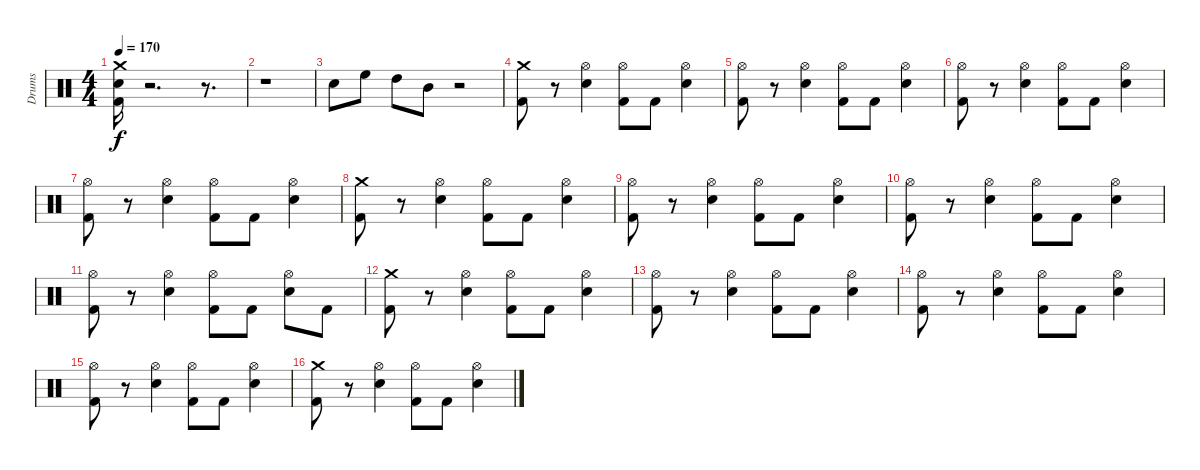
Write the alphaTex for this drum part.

\track ("Drums" "Drums") {instrument percussion}
\staff {score}
\articulation defaults
\ts (4 4)
\tempo 170
\clef neutral
\ks c
("Crash medium (hit)" "Kick (hit) 2" "Electric Snare (hit)").16{dy f} r.2{d} r.8{d} |
r.1 |
"Electric Snare (hit)".8 "High Floor Tom (hit)".8 "High Tom (hit)".8 "Mid Tom (hit)".8 r.2 |
("Kick (hit) 2" "Crash medium (hit)").8 r.8 ("Hi-Hat (open)" "Electric Snare (hit)").4 ("Hi-Hat (open)" "Kick (hit) 2").8 "Kick (hit) 2".8 ("Hi-Hat (open)" "Electric Snare (hit)").4 |
("Hi-Hat (open)" "Kick (hit) 2").8 r.8 ("Hi-Hat (open)" "Electric Snare (hit)").4 ("Hi-Hat (open)" "Kick (hit) 2").8 "Kick (hit) 2".8 ("Hi-Hat (open)" "Electric Snare (hit)").4 |
("Hi-Hat (open)" "Kick (hit) 2").8 r.8 ("Hi-Hat (open)" "Electric Snare (hit)").4 ("Hi-Hat (open)" "Kick (hit) 2").8 "Kick (hit) 2".8 ("Hi-Hat (open)" "Electric Snare (hit)").4 |
("Hi-Hat (open)" "Kick (hit) 2").8 r.8 ("Hi-Hat (open)" "Electric Snare (hit)").4 ("Hi-Hat (open)" "Kick (hit) 2").8 "Kick (hit) 2".8 ("Hi-Hat (open)" "Electric Snare (hit)").4 |
("Kick (hit) 2" "Crash medium (hit)").8 r.8 ("Hi-Hat (open)" "Electric Snare (hit)").4 ("Hi-Hat (open)" "Kick (hit) 2").8 "Kick (hit) 2".8 ("Hi-Hat (open)" "Electric Snare (hit)").4 |
("Hi-Hat (open)" "Kick (hit) 2").8 r.8 ("Hi-Hat (open)" "Electric Snare (hit)").4 ("Hi-Hat (open)" "Kick (hit) 2").8 "Kick (hit) 2".8 ("Hi-Hat (open)" "Electric Snare (hit)").4 |
("Hi-Hat (open)" "Kick (hit) 2").8 r.8 ("Hi-Hat (open)" "Electric Snare (hit)").4 ("Hi-Hat (open)" "Kick (hit) 2").8 "Kick (hit) 2".8 ("Hi-Hat (open)" "Electric Snare (hit)").4 |
("Hi-Hat (open)" "Kick (hit) 2").8 r.8 ("Hi-Hat (open)" "Electric Snare (hit)").4 ("Hi-Hat (open)" "Kick (hit) 2").8 "Kick (hit) 2".8 ("Hi-Hat (open)" "Electric Snare (hit)").8 "Kick (hit) 2".8 |
("Kick (hit) 2" "Crash medium (hit)").8 r.8 ("Hi-Hat (open)" "Electric Snare (hit)").4 ("Hi-Hat (open)" "Kick (hit) 2").8 "Kick (hit) 2".8 ("Hi-Hat (open)" "Electric Snare (hit)").4 |
("Hi-Hat (open)" "Kick (hit) 2").8 r.8 ("Hi-Hat (open)" "Electric Snare (hit)").4 ("Hi-Hat (open)" "Kick (hit) 2").8 "Kick (hit) 2".8 ("Hi-Hat (open)" "Electric Snare (hit)").4 |
("Hi-Hat (open)" "Kick (hit) 2").8 r.8 ("Hi-Hat (open)" "Electric Snare (hit)").4 ("Hi-Hat (open)" "Kick (hit) 2").8 "Kick (hit) 2".8 ("Hi-Hat (open)" "Electric Snare (hit)").4 |
("Hi-Hat (open)" "Kick (hit) 2").8 r.8 ("Hi-Hat (open)" "Electric Snare (hit)").4 ("Hi-Hat (open)" "Kick (hit) 2").8 "Kick (hit) 2".8 ("Hi-Hat (open)" "Electric Snare (hit)").4 |
("Kick (hit) 2" "Crash medium (hit)").8 r.8 ("Hi-Hat (open)" "Electric Snare (hit)").4 ("Hi-Hat (open)" "Kick (hit) 2").8 "Kick (hit) 2".8 ("Hi-Hat (open)" "Electric Snare (hit)").4
